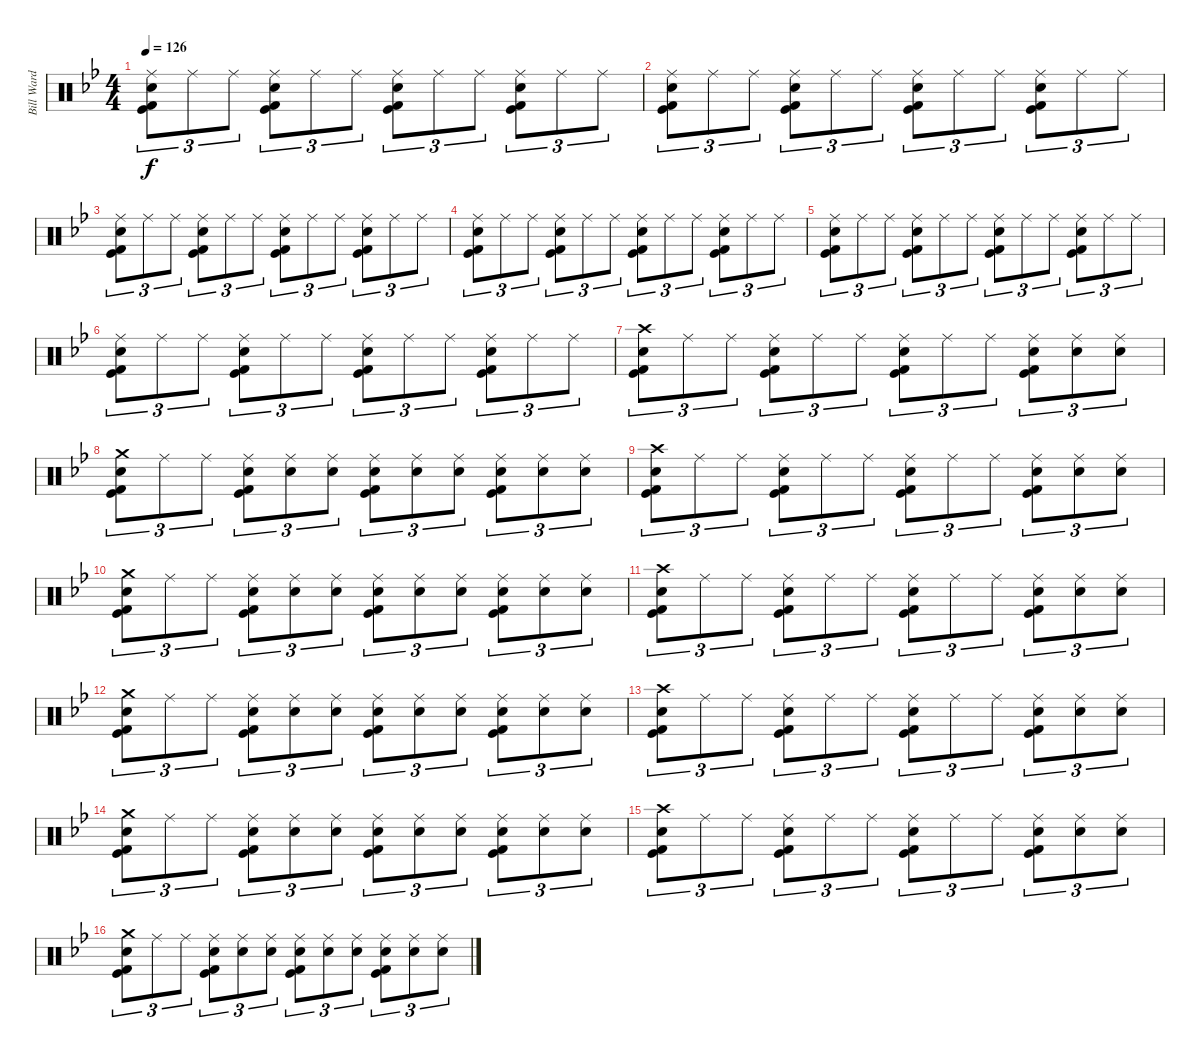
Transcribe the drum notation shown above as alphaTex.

\track ("Bill Ward" "Bill Ward") {instrument percussion}
\staff {score}
\articulation defaults
\ts (4 4)
\tempo 126
\clef neutral
\ks bb
("Ride (middle)" "Snare (hit) 2" "Kick (hit) 2" "Kick (hit)").8{tu (3 2) dy f} "Ride (middle)".8{tu (3 2)} "Ride (middle)".8{tu (3 2)} ("Ride (middle)" "Snare (hit) 2" "Kick (hit) 2" "Kick (hit)").8{tu (3 2)} "Ride (middle)".8{tu (3 2)} "Ride (middle)".8{tu (3 2)} ("Ride (middle)" "Snare (hit) 2" "Kick (hit) 2" "Kick (hit)").8{tu (3 2)} "Ride (middle)".8{tu (3 2)} "Ride (middle)".8{tu (3 2)} ("Ride (middle)" "Snare (hit) 2" "Kick (hit) 2" "Kick (hit)").8{tu (3 2)} "Ride (middle)".8{tu (3 2)} "Ride (middle)".8{tu (3 2)} |
("Ride (middle)" "Snare (hit) 2" "Kick (hit) 2" "Kick (hit)").8{tu (3 2)} "Ride (middle)".8{tu (3 2)} "Ride (middle)".8{tu (3 2)} ("Ride (middle)" "Snare (hit) 2" "Kick (hit) 2" "Kick (hit)").8{tu (3 2)} "Ride (middle)".8{tu (3 2)} "Ride (middle)".8{tu (3 2)} ("Ride (middle)" "Snare (hit) 2" "Kick (hit) 2" "Kick (hit)").8{tu (3 2)} "Ride (middle)".8{tu (3 2)} "Ride (middle)".8{tu (3 2)} ("Ride (middle)" "Snare (hit) 2" "Kick (hit) 2" "Kick (hit)").8{tu (3 2)} "Ride (middle)".8{tu (3 2)} "Ride (middle)".8{tu (3 2)} |
("Ride (middle)" "Snare (hit) 2" "Kick (hit) 2" "Kick (hit)").8{tu (3 2)} "Ride (middle)".8{tu (3 2)} "Ride (middle)".8{tu (3 2)} ("Ride (middle)" "Snare (hit) 2" "Kick (hit) 2" "Kick (hit)").8{tu (3 2)} "Ride (middle)".8{tu (3 2)} "Ride (middle)".8{tu (3 2)} ("Ride (middle)" "Snare (hit) 2" "Kick (hit) 2" "Kick (hit)").8{tu (3 2)} "Ride (middle)".8{tu (3 2)} "Ride (middle)".8{tu (3 2)} ("Ride (middle)" "Snare (hit) 2" "Kick (hit) 2" "Kick (hit)").8{tu (3 2)} "Ride (middle)".8{tu (3 2)} "Ride (middle)".8{tu (3 2)} |
("Ride (middle)" "Snare (hit) 2" "Kick (hit) 2" "Kick (hit)").8{tu (3 2)} "Ride (middle)".8{tu (3 2)} "Ride (middle)".8{tu (3 2)} ("Ride (middle)" "Snare (hit) 2" "Kick (hit) 2" "Kick (hit)").8{tu (3 2)} "Ride (middle)".8{tu (3 2)} "Ride (middle)".8{tu (3 2)} ("Ride (middle)" "Snare (hit) 2" "Kick (hit) 2" "Kick (hit)").8{tu (3 2)} "Ride (middle)".8{tu (3 2)} "Ride (middle)".8{tu (3 2)} ("Ride (middle)" "Snare (hit) 2" "Kick (hit) 2" "Kick (hit)").8{tu (3 2)} "Ride (middle)".8{tu (3 2)} "Ride (middle)".8{tu (3 2)} |
("Ride (middle)" "Snare (hit) 2" "Kick (hit) 2" "Kick (hit)").8{tu (3 2)} "Ride (middle)".8{tu (3 2)} "Ride (middle)".8{tu (3 2)} ("Ride (middle)" "Snare (hit) 2" "Kick (hit) 2" "Kick (hit)").8{tu (3 2)} "Ride (middle)".8{tu (3 2)} "Ride (middle)".8{tu (3 2)} ("Ride (middle)" "Snare (hit) 2" "Kick (hit) 2" "Kick (hit)").8{tu (3 2)} "Ride (middle)".8{tu (3 2)} "Ride (middle)".8{tu (3 2)} ("Ride (middle)" "Snare (hit) 2" "Kick (hit) 2" "Kick (hit)").8{tu (3 2)} "Ride (middle)".8{tu (3 2)} "Ride (middle)".8{tu (3 2)} |
("Ride (middle)" "Snare (hit) 2" "Kick (hit) 2" "Kick (hit)").8{tu (3 2)} "Ride (middle)".8{tu (3 2)} "Ride (middle)".8{tu (3 2)} ("Ride (middle)" "Snare (hit) 2" "Kick (hit) 2" "Kick (hit)").8{tu (3 2)} "Ride (middle)".8{tu (3 2)} "Ride (middle)".8{tu (3 2)} ("Ride (middle)" "Snare (hit) 2" "Kick (hit) 2" "Kick (hit)").8{tu (3 2)} "Ride (middle)".8{tu (3 2)} "Ride (middle)".8{tu (3 2)} ("Ride (middle)" "Snare (hit) 2" "Kick (hit) 2" "Kick (hit)").8{tu (3 2)} "Ride (middle)".8{tu (3 2)} "Ride (middle)".8{tu (3 2)} |
("Crash high (hit)" "Snare (hit) 2" "Kick (hit) 2" "Kick (hit)").8{tu (3 2)} "Ride (middle)".8{tu (3 2)} "Ride (middle)".8{tu (3 2)} ("Ride (middle)" "Snare (hit) 2" "Kick (hit) 2" "Kick (hit)").8{tu (3 2)} "Ride (middle)".8{tu (3 2)} "Ride (middle)".8{tu (3 2)} ("Ride (middle)" "Snare (hit) 2" "Kick (hit) 2" "Kick (hit)").8{tu (3 2)} "Ride (middle)".8{tu (3 2)} "Ride (middle)".8{tu (3 2)} ("Ride (middle)" "Snare (hit) 2" "Kick (hit) 2" "Kick (hit)").8{tu (3 2)} ("Ride (middle)" "Snare (hit) 2").8{tu (3 2)} ("Ride (middle)" "Snare (hit) 2").8{tu (3 2)} |
("Crash medium (hit)" "Snare (hit) 2" "Kick (hit) 2" "Kick (hit)").8{tu (3 2)} "Ride (middle)".8{tu (3 2)} "Ride (middle)".8{tu (3 2)} ("Ride (middle)" "Snare (hit) 2" "Kick (hit) 2" "Kick (hit)").8{tu (3 2)} ("Ride (middle)" "Snare (hit) 2").8{tu (3 2)} ("Ride (middle)" "Snare (hit) 2").8{tu (3 2)} ("Ride (middle)" "Snare (hit) 2" "Kick (hit) 2" "Kick (hit)").8{tu (3 2)} ("Ride (middle)" "Snare (hit) 2").8{tu (3 2)} ("Ride (middle)" "Snare (hit) 2").8{tu (3 2)} ("Ride (middle)" "Snare (hit) 2" "Kick (hit) 2" "Kick (hit)").8{tu (3 2)} ("Ride (middle)" "Snare (hit) 2").8{tu (3 2)} ("Ride (middle)" "Snare (hit) 2").8{tu (3 2)} |
("Crash high (hit)" "Snare (hit) 2" "Kick (hit) 2" "Kick (hit)").8{tu (3 2)} "Ride (middle)".8{tu (3 2)} "Ride (middle)".8{tu (3 2)} ("Ride (middle)" "Snare (hit) 2" "Kick (hit) 2" "Kick (hit)").8{tu (3 2)} "Ride (middle)".8{tu (3 2)} "Ride (middle)".8{tu (3 2)} ("Ride (middle)" "Snare (hit) 2" "Kick (hit) 2" "Kick (hit)").8{tu (3 2)} "Ride (middle)".8{tu (3 2)} "Ride (middle)".8{tu (3 2)} ("Ride (middle)" "Snare (hit) 2" "Kick (hit) 2" "Kick (hit)").8{tu (3 2)} ("Ride (middle)" "Snare (hit) 2").8{tu (3 2)} ("Ride (middle)" "Snare (hit) 2").8{tu (3 2)} |
("Crash medium (hit)" "Snare (hit) 2" "Kick (hit) 2" "Kick (hit)").8{tu (3 2)} "Ride (middle)".8{tu (3 2)} "Ride (middle)".8{tu (3 2)} ("Ride (middle)" "Snare (hit) 2" "Kick (hit) 2" "Kick (hit)").8{tu (3 2)} ("Ride (middle)" "Snare (hit) 2").8{tu (3 2)} ("Ride (middle)" "Snare (hit) 2").8{tu (3 2)} ("Ride (middle)" "Snare (hit) 2" "Kick (hit) 2" "Kick (hit)").8{tu (3 2)} ("Ride (middle)" "Snare (hit) 2").8{tu (3 2)} ("Ride (middle)" "Snare (hit) 2").8{tu (3 2)} ("Ride (middle)" "Snare (hit) 2" "Kick (hit) 2" "Kick (hit)").8{tu (3 2)} ("Ride (middle)" "Snare (hit) 2").8{tu (3 2)} ("Ride (middle)" "Snare (hit) 2").8{tu (3 2)} |
("Crash high (hit)" "Snare (hit) 2" "Kick (hit) 2" "Kick (hit)").8{tu (3 2)} "Ride (middle)".8{tu (3 2)} "Ride (middle)".8{tu (3 2)} ("Ride (middle)" "Snare (hit) 2" "Kick (hit) 2" "Kick (hit)").8{tu (3 2)} "Ride (middle)".8{tu (3 2)} "Ride (middle)".8{tu (3 2)} ("Ride (middle)" "Snare (hit) 2" "Kick (hit) 2" "Kick (hit)").8{tu (3 2)} "Ride (middle)".8{tu (3 2)} "Ride (middle)".8{tu (3 2)} ("Ride (middle)" "Snare (hit) 2" "Kick (hit) 2" "Kick (hit)").8{tu (3 2)} ("Ride (middle)" "Snare (hit) 2").8{tu (3 2)} ("Ride (middle)" "Snare (hit) 2").8{tu (3 2)} |
("Crash medium (hit)" "Snare (hit) 2" "Kick (hit) 2" "Kick (hit)").8{tu (3 2)} "Ride (middle)".8{tu (3 2)} "Ride (middle)".8{tu (3 2)} ("Ride (middle)" "Snare (hit) 2" "Kick (hit) 2" "Kick (hit)").8{tu (3 2)} ("Ride (middle)" "Snare (hit) 2").8{tu (3 2)} ("Ride (middle)" "Snare (hit) 2").8{tu (3 2)} ("Ride (middle)" "Snare (hit) 2" "Kick (hit) 2" "Kick (hit)").8{tu (3 2)} ("Ride (middle)" "Snare (hit) 2").8{tu (3 2)} ("Ride (middle)" "Snare (hit) 2").8{tu (3 2)} ("Ride (middle)" "Snare (hit) 2" "Kick (hit) 2" "Kick (hit)").8{tu (3 2)} ("Ride (middle)" "Snare (hit) 2").8{tu (3 2)} ("Ride (middle)" "Snare (hit) 2").8{tu (3 2)} |
("Crash high (hit)" "Snare (hit) 2" "Kick (hit) 2" "Kick (hit)").8{tu (3 2)} "Ride (middle)".8{tu (3 2)} "Ride (middle)".8{tu (3 2)} ("Ride (middle)" "Snare (hit) 2" "Kick (hit) 2" "Kick (hit)").8{tu (3 2)} "Ride (middle)".8{tu (3 2)} "Ride (middle)".8{tu (3 2)} ("Ride (middle)" "Snare (hit) 2" "Kick (hit) 2" "Kick (hit)").8{tu (3 2)} "Ride (middle)".8{tu (3 2)} "Ride (middle)".8{tu (3 2)} ("Ride (middle)" "Snare (hit) 2" "Kick (hit) 2" "Kick (hit)").8{tu (3 2)} ("Ride (middle)" "Snare (hit) 2").8{tu (3 2)} ("Ride (middle)" "Snare (hit) 2").8{tu (3 2)} |
("Crash medium (hit)" "Snare (hit) 2" "Kick (hit) 2" "Kick (hit)").8{tu (3 2)} "Ride (middle)".8{tu (3 2)} "Ride (middle)".8{tu (3 2)} ("Ride (middle)" "Snare (hit) 2" "Kick (hit) 2" "Kick (hit)").8{tu (3 2)} ("Ride (middle)" "Snare (hit) 2").8{tu (3 2)} ("Ride (middle)" "Snare (hit) 2").8{tu (3 2)} ("Ride (middle)" "Snare (hit) 2" "Kick (hit) 2" "Kick (hit)").8{tu (3 2)} ("Ride (middle)" "Snare (hit) 2").8{tu (3 2)} ("Ride (middle)" "Snare (hit) 2").8{tu (3 2)} ("Ride (middle)" "Snare (hit) 2" "Kick (hit) 2" "Kick (hit)").8{tu (3 2)} ("Ride (middle)" "Snare (hit) 2").8{tu (3 2)} ("Ride (middle)" "Snare (hit) 2").8{tu (3 2)} |
("Crash high (hit)" "Snare (hit) 2" "Kick (hit) 2" "Kick (hit)").8{tu (3 2)} "Ride (middle)".8{tu (3 2)} "Ride (middle)".8{tu (3 2)} ("Ride (middle)" "Snare (hit) 2" "Kick (hit) 2" "Kick (hit)").8{tu (3 2)} "Ride (middle)".8{tu (3 2)} "Ride (middle)".8{tu (3 2)} ("Ride (middle)" "Snare (hit) 2" "Kick (hit) 2" "Kick (hit)").8{tu (3 2)} "Ride (middle)".8{tu (3 2)} "Ride (middle)".8{tu (3 2)} ("Ride (middle)" "Snare (hit) 2" "Kick (hit) 2" "Kick (hit)").8{tu (3 2)} ("Ride (middle)" "Snare (hit) 2").8{tu (3 2)} ("Ride (middle)" "Snare (hit) 2").8{tu (3 2)} |
("Crash medium (hit)" "Snare (hit) 2" "Kick (hit) 2" "Kick (hit)").8{tu (3 2)} "Ride (middle)".8{tu (3 2)} "Ride (middle)".8{tu (3 2)} ("Ride (middle)" "Snare (hit) 2" "Kick (hit) 2" "Kick (hit)").8{tu (3 2)} ("Ride (middle)" "Snare (hit) 2").8{tu (3 2)} ("Ride (middle)" "Snare (hit) 2").8{tu (3 2)} ("Ride (middle)" "Snare (hit) 2" "Kick (hit) 2" "Kick (hit)").8{tu (3 2)} ("Ride (middle)" "Snare (hit) 2").8{tu (3 2)} ("Ride (middle)" "Snare (hit) 2").8{tu (3 2)} ("Ride (middle)" "Snare (hit) 2" "Kick (hit) 2" "Kick (hit)").8{tu (3 2)} ("Ride (middle)" "Snare (hit) 2").8{tu (3 2)} ("Ride (middle)" "Snare (hit) 2").8{tu (3 2)}
